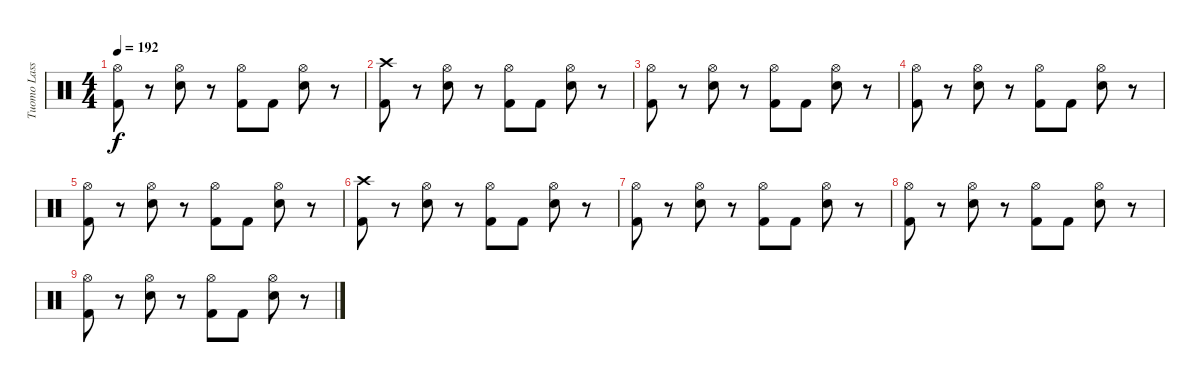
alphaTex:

\track ("Tuomo Lassilla" "Tuomo Lass") {instrument percussion}
\staff {score}
\articulation defaults
\ts (4 4)
\tempo 192
\clef neutral
\ks c
("Hi-Hat (open)" "Kick (hit) 2").8{dy f volume 9} r.8 ("Hi-Hat (open)" "Electric Snare (hit)").8{volume 9} r.8 ("Hi-Hat (open)" "Kick (hit) 2").8{volume 8} "Kick (hit) 2".8{volume 8} ("Hi-Hat (open)" "Electric Snare (hit)").8{volume 8} r.8 |
("Crash high (hit)" "Kick (hit) 2").8{volume 8} r.8 ("Hi-Hat (open)" "Electric Snare (hit)").8{volume 8} r.8 ("Hi-Hat (open)" "Kick (hit) 2").8{volume 7} "Kick (hit) 2".8{volume 7} ("Hi-Hat (open)" "Electric Snare (hit)").8{volume 7} r.8 |
("Hi-Hat (open)" "Kick (hit) 2").8{volume 7} r.8 ("Hi-Hat (open)" "Electric Snare (hit)").8{volume 7} r.8 ("Hi-Hat (open)" "Kick (hit) 2").8{volume 6} "Kick (hit) 2".8{volume 6} ("Hi-Hat (open)" "Electric Snare (hit)").8{volume 6} r.8 |
("Hi-Hat (open)" "Kick (hit) 2").8{volume 6} r.8 ("Hi-Hat (open)" "Electric Snare (hit)").8{volume 6} r.8 ("Hi-Hat (open)" "Kick (hit) 2").8{volume 5} "Kick (hit) 2".8{volume 5} ("Hi-Hat (open)" "Electric Snare (hit)").8{volume 5} r.8 |
("Hi-Hat (open)" "Kick (hit) 2").8{volume 5} r.8 ("Hi-Hat (open)" "Electric Snare (hit)").8{volume 5} r.8 ("Hi-Hat (open)" "Kick (hit) 2").8{volume 4} "Kick (hit) 2".8{volume 4} ("Hi-Hat (open)" "Electric Snare (hit)").8{volume 4} r.8 |
("Crash high (hit)" "Kick (hit) 2").8{volume 4} r.8 ("Hi-Hat (open)" "Electric Snare (hit)").8{volume 4} r.8 ("Hi-Hat (open)" "Kick (hit) 2").8{volume 3} "Kick (hit) 2".8{volume 3} ("Hi-Hat (open)" "Electric Snare (hit)").8{volume 3} r.8 |
("Hi-Hat (open)" "Kick (hit) 2").8{volume 3} r.8 ("Hi-Hat (open)" "Electric Snare (hit)").8{volume 3} r.8 ("Hi-Hat (open)" "Kick (hit) 2").8{volume 2} "Kick (hit) 2".8{volume 2} ("Hi-Hat (open)" "Electric Snare (hit)").8{volume 2} r.8 |
("Hi-Hat (open)" "Kick (hit) 2").8{volume 2} r.8 ("Hi-Hat (open)" "Electric Snare (hit)").8{volume 2} r.8 ("Hi-Hat (open)" "Kick (hit) 2").8{volume 1} "Kick (hit) 2".8{volume 1} ("Hi-Hat (open)" "Electric Snare (hit)").8{volume 1} r.8 |
("Hi-Hat (open)" "Kick (hit) 2").8{volume 1} r.8 ("Hi-Hat (open)" "Electric Snare (hit)").8{volume 1} r.8 ("Hi-Hat (open)" "Kick (hit) 2").8{volume 0} "Kick (hit) 2".8{volume 0} ("Hi-Hat (open)" "Electric Snare (hit)").8{volume 0} r.8
